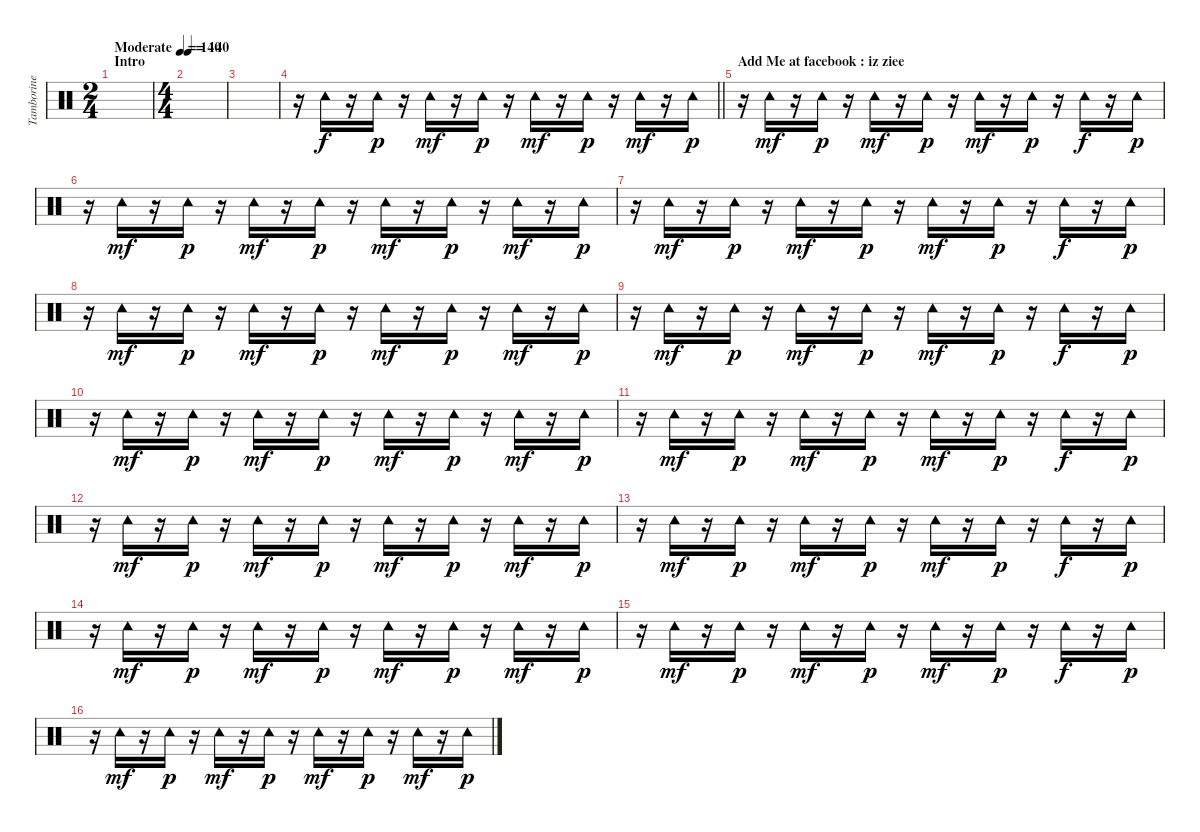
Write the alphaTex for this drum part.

\track ("Tamborine" "Tamborine") {instrument percussion}
\staff {score}
\articulation defaults
\ts (2 4)
\section ("" "Intro")
\tempo (140 "Moderate")
\clef neutral
\ks c
|
\ts (4 4)
\tempo 140
|
|
\barLineRight lightlight
r.16 "Tambourine (hit)".16 r.16 "Tambourine (hit)".16{dy p} r.16 "Tambourine (hit)".16{dy mf} r.16 "Tambourine (hit)".16{dy p} r.16 "Tambourine (hit)".16{dy mf} r.16 "Tambourine (hit)".16{dy p} r.16 "Tambourine (hit)".16{dy mf} r.16 "Tambourine (hit)".16{dy p} |
\section ("" "Add Me at facebook : iz ziee")
r.16 "Tambourine (hit)".16{dy mf} r.16 "Tambourine (hit)".16{dy p} r.16 "Tambourine (hit)".16{dy mf} r.16 "Tambourine (hit)".16{dy p} r.16 "Tambourine (hit)".16{dy mf} r.16 "Tambourine (hit)".16{dy p} r.16 "Tambourine (hit)".16{dy f} r.16 "Tambourine (hit)".16{dy p} |
r.16 "Tambourine (hit)".16{dy mf} r.16 "Tambourine (hit)".16{dy p} r.16 "Tambourine (hit)".16{dy mf} r.16 "Tambourine (hit)".16{dy p} r.16 "Tambourine (hit)".16{dy mf} r.16 "Tambourine (hit)".16{dy p} r.16 "Tambourine (hit)".16{dy mf} r.16 "Tambourine (hit)".16{dy p} |
r.16 "Tambourine (hit)".16{dy mf} r.16 "Tambourine (hit)".16{dy p} r.16 "Tambourine (hit)".16{dy mf} r.16 "Tambourine (hit)".16{dy p} r.16 "Tambourine (hit)".16{dy mf} r.16 "Tambourine (hit)".16{dy p} r.16 "Tambourine (hit)".16{dy f} r.16 "Tambourine (hit)".16{dy p} |
r.16 "Tambourine (hit)".16{dy mf} r.16 "Tambourine (hit)".16{dy p} r.16 "Tambourine (hit)".16{dy mf} r.16 "Tambourine (hit)".16{dy p} r.16 "Tambourine (hit)".16{dy mf} r.16 "Tambourine (hit)".16{dy p} r.16 "Tambourine (hit)".16{dy mf} r.16 "Tambourine (hit)".16{dy p} |
r.16 "Tambourine (hit)".16{dy mf} r.16 "Tambourine (hit)".16{dy p} r.16 "Tambourine (hit)".16{dy mf} r.16 "Tambourine (hit)".16{dy p} r.16 "Tambourine (hit)".16{dy mf} r.16 "Tambourine (hit)".16{dy p} r.16 "Tambourine (hit)".16{dy f} r.16 "Tambourine (hit)".16{dy p} |
r.16 "Tambourine (hit)".16{dy mf} r.16 "Tambourine (hit)".16{dy p} r.16 "Tambourine (hit)".16{dy mf} r.16 "Tambourine (hit)".16{dy p} r.16 "Tambourine (hit)".16{dy mf} r.16 "Tambourine (hit)".16{dy p} r.16 "Tambourine (hit)".16{dy mf} r.16 "Tambourine (hit)".16{dy p} |
r.16 "Tambourine (hit)".16{dy mf} r.16 "Tambourine (hit)".16{dy p} r.16 "Tambourine (hit)".16{dy mf} r.16 "Tambourine (hit)".16{dy p} r.16 "Tambourine (hit)".16{dy mf} r.16 "Tambourine (hit)".16{dy p} r.16 "Tambourine (hit)".16{dy f} r.16 "Tambourine (hit)".16{dy p} |
r.16 "Tambourine (hit)".16{dy mf} r.16 "Tambourine (hit)".16{dy p} r.16 "Tambourine (hit)".16{dy mf} r.16 "Tambourine (hit)".16{dy p} r.16 "Tambourine (hit)".16{dy mf} r.16 "Tambourine (hit)".16{dy p} r.16 "Tambourine (hit)".16{dy mf} r.16 "Tambourine (hit)".16{dy p} |
r.16 "Tambourine (hit)".16{dy mf} r.16 "Tambourine (hit)".16{dy p} r.16 "Tambourine (hit)".16{dy mf} r.16 "Tambourine (hit)".16{dy p} r.16 "Tambourine (hit)".16{dy mf} r.16 "Tambourine (hit)".16{dy p} r.16 "Tambourine (hit)".16{dy f} r.16 "Tambourine (hit)".16{dy p} |
r.16 "Tambourine (hit)".16{dy mf} r.16 "Tambourine (hit)".16{dy p} r.16 "Tambourine (hit)".16{dy mf} r.16 "Tambourine (hit)".16{dy p} r.16 "Tambourine (hit)".16{dy mf} r.16 "Tambourine (hit)".16{dy p} r.16 "Tambourine (hit)".16{dy mf} r.16 "Tambourine (hit)".16{dy p} |
r.16 "Tambourine (hit)".16{dy mf} r.16 "Tambourine (hit)".16{dy p} r.16 "Tambourine (hit)".16{dy mf} r.16 "Tambourine (hit)".16{dy p} r.16 "Tambourine (hit)".16{dy mf} r.16 "Tambourine (hit)".16{dy p} r.16 "Tambourine (hit)".16{dy f} r.16 "Tambourine (hit)".16{dy p} |
r.16 "Tambourine (hit)".16{dy mf} r.16 "Tambourine (hit)".16{dy p} r.16 "Tambourine (hit)".16{dy mf} r.16 "Tambourine (hit)".16{dy p} r.16 "Tambourine (hit)".16{dy mf} r.16 "Tambourine (hit)".16{dy p} r.16 "Tambourine (hit)".16{dy mf} r.16 "Tambourine (hit)".16{dy p}
